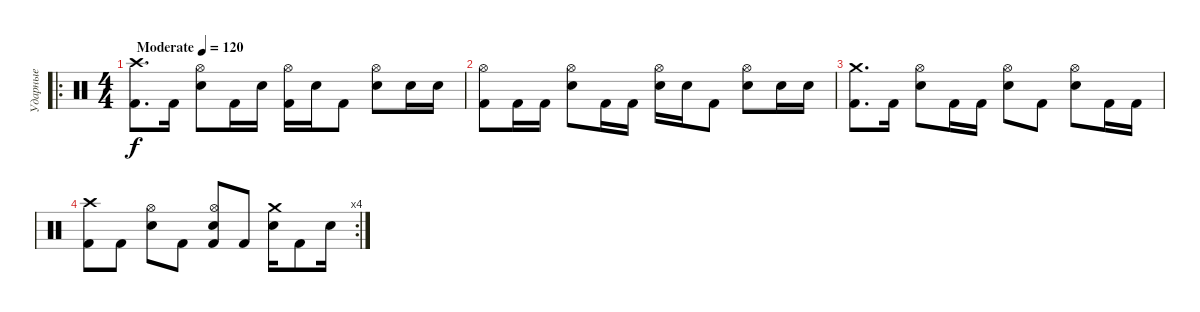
\track ("Ударные" "Ударные") {instrument percussion}
\staff {score}
\articulation defaults
\ro
\ts (4 4)
\tempo (120 "Moderate")
\clef neutral
\ks c
("Crash high (hit)" "Kick (hit) 2").8{d dy f} "Kick (hit) 2".16 ("Hi-Hat (open)" "Electric Snare (hit)").8 "Kick (hit) 2".16 "Electric Snare (hit)".16 ("Hi-Hat (open)" "Kick (hit) 2").16 "Electric Snare (hit)".16 "Kick (hit) 2".8 ("Hi-Hat (open)" "Electric Snare (hit)").8 "Electric Snare (hit)".16 "Electric Snare (hit)".16 |
("Hi-Hat (open)" "Kick (hit) 2").8 "Kick (hit) 2".16 "Kick (hit) 2".16 ("Hi-Hat (open)" "Electric Snare (hit)").8 "Kick (hit) 2".16 "Kick (hit) 2".16 ("Hi-Hat (open)" "Electric Snare (hit)").16 "Electric Snare (hit)".16 "Kick (hit) 2".8 ("Hi-Hat (open)" "Electric Snare (hit)").8 "Electric Snare (hit)".16 "Electric Snare (hit)".16 |
("Crash medium (hit)" "Kick (hit) 2").8{d} "Kick (hit) 2".16 ("Hi-Hat (open)" "Electric Snare (hit)").8 "Kick (hit) 2".16 "Kick (hit) 2".16 ("Hi-Hat (open)" "Electric Snare (hit)").8 "Kick (hit) 2".8 ("Hi-Hat (open)" "Electric Snare (hit)").8 "Kick (hit) 2".16 "Kick (hit) 2".16 |
\rc 4
("Crash high (hit)" "Kick (hit) 2").8 "Kick (hit) 2".8 ("Hi-Hat (open)" "Electric Snare (hit)").8 "Kick (hit) 2".8 ("Hi-Hat (open)" "Electric Snare (hit)" "Kick (hit) 2").8 "Kick (hit) 2".8 ("Crash medium (hit)" "Electric Snare (hit)").16 "Kick (hit) 2".8 "Electric Snare (hit)".16
